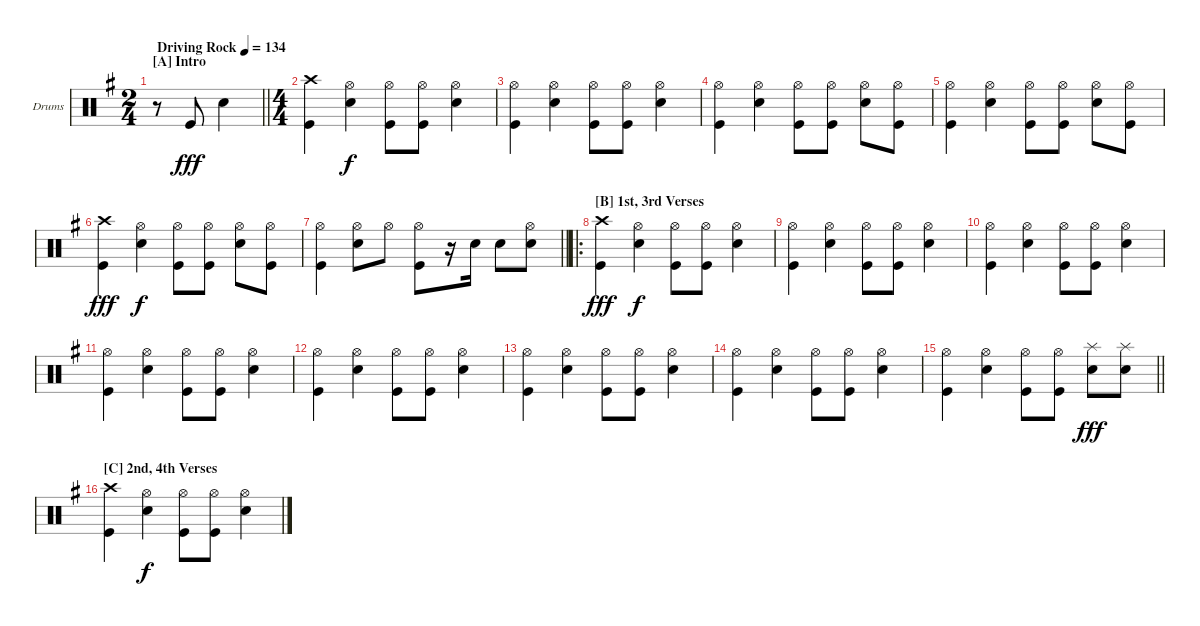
\defaultSystemsLayout 4
\bracketExtendMode groupsimilarinstruments
\firstSystemTrackNameOrientation horizontal
\otherSystemsTrackNameOrientation horizontal
\track ("Bobby Blotzer" "Drums") {instrument percussion}
\staff {score}
\articulation defaults
\ts (2 4)
\section ("A" "Intro")
\tempo (134 "Driving Rock")
\clef neutral
\barLineRight lightlight
\ks g
r.8{dy fff} "Kick (hit)".8 "Snare (hit) 2".4 |
\ts (4 4)
("Kick (hit)" "Crash high (hit)").4 ("Hi-Hat (open)" "Snare (hit) 2").4{dy f} ("Kick (hit)" "Hi-Hat (open)").8 ("Kick (hit)" "Hi-Hat (open)").8 ("Snare (hit) 2" "Hi-Hat (open)").4 |
("Kick (hit)" "Hi-Hat (open)").4 ("Hi-Hat (open)" "Snare (hit) 2").4 ("Kick (hit)" "Hi-Hat (open)").8 ("Kick (hit)" "Hi-Hat (open)").8 ("Snare (hit) 2" "Hi-Hat (open)").4 |
("Kick (hit)" "Hi-Hat (open)").4 ("Hi-Hat (open)" "Snare (hit) 2").4 ("Kick (hit)" "Hi-Hat (open)").8 ("Kick (hit)" "Hi-Hat (open)").8 ("Snare (hit) 2" "Hi-Hat (open)").8 ("Kick (hit)" "Hi-Hat (open)").8 |
("Kick (hit)" "Hi-Hat (open)").4 ("Hi-Hat (open)" "Snare (hit) 2").4 ("Kick (hit)" "Hi-Hat (open)").8 ("Kick (hit)" "Hi-Hat (open)").8 ("Snare (hit) 2" "Hi-Hat (open)").8 ("Kick (hit)" "Hi-Hat (open)").8 |
("Kick (hit)" "Crash high (hit)").4{dy fff} ("Hi-Hat (open)" "Snare (hit) 2").4{dy f} ("Kick (hit)" "Hi-Hat (open)").8 ("Kick (hit)" "Hi-Hat (open)").8 ("Snare (hit) 2" "Hi-Hat (open)").8 ("Kick (hit)" "Hi-Hat (open)").8 |
\barLineRight lightlight
("Kick (hit)" "Hi-Hat (open)").4 ("Snare (hit) 2" "Hi-Hat (open)").8 "Hi-Hat (open)".8 ("Hi-Hat (open)" "Kick (hit)").8 r.16 "Snare (hit) 2".16 "Snare (hit) 2".8 ("Snare (hit) 2" "Hi-Hat (open)").8 |
\ro
\section ("B" "1st, 3rd Verses")
("Kick (hit)" "Crash high (hit)").4{dy fff} ("Hi-Hat (open)" "Snare (hit) 2").4{dy f} ("Hi-Hat (open)" "Kick (hit)").8 ("Hi-Hat (open)" "Kick (hit)").8 ("Snare (hit) 2" "Hi-Hat (open)").4 |
("Kick (hit)" "Hi-Hat (open)").4 ("Hi-Hat (open)" "Snare (hit) 2").4 ("Hi-Hat (open)" "Kick (hit)").8 ("Hi-Hat (open)" "Kick (hit)").8 ("Snare (hit) 2" "Hi-Hat (open)").4 |
("Kick (hit)" "Hi-Hat (open)").4 ("Hi-Hat (open)" "Snare (hit) 2").4 ("Hi-Hat (open)" "Kick (hit)").8 ("Hi-Hat (open)" "Kick (hit)").8 ("Snare (hit) 2" "Hi-Hat (open)").4 |
("Kick (hit)" "Hi-Hat (open)").4 ("Hi-Hat (open)" "Snare (hit) 2").4 ("Hi-Hat (open)" "Kick (hit)").8 ("Hi-Hat (open)" "Kick (hit)").8 ("Snare (hit) 2" "Hi-Hat (open)").4 |
("Kick (hit)" "Hi-Hat (open)").4 ("Hi-Hat (open)" "Snare (hit) 2").4 ("Hi-Hat (open)" "Kick (hit)").8 ("Hi-Hat (open)" "Kick (hit)").8 ("Snare (hit) 2" "Hi-Hat (open)").4 |
("Kick (hit)" "Hi-Hat (open)").4 ("Hi-Hat (open)" "Snare (hit) 2").4 ("Hi-Hat (open)" "Kick (hit)").8 ("Hi-Hat (open)" "Kick (hit)").8 ("Snare (hit) 2" "Hi-Hat (open)").4 |
("Kick (hit)" "Hi-Hat (open)").4 ("Hi-Hat (open)" "Snare (hit) 2").4 ("Hi-Hat (open)" "Kick (hit)").8 ("Hi-Hat (open)" "Kick (hit)").8 ("Snare (hit) 2" "Hi-Hat (open)").4 |
\barLineRight lightlight
("Kick (hit)" "Hi-Hat (open)").4 ("Hi-Hat (open)" "Snare (hit) 2").4 ("Hi-Hat (open)" "Kick (hit)").8 ("Hi-Hat (open)" "Kick (hit)").8 ("Snare (hit) 2" "Splash (hit)").8{dy fff} ("Snare (hit) 2" "Splash (hit)").8 |
\section ("C" "2nd, 4th Verses")
("Kick (hit)" "Crash high (hit)").4 ("Hi-Hat (open)" "Snare (hit) 2").4{dy f} ("Hi-Hat (open)" "Kick (hit)").8 ("Hi-Hat (open)" "Kick (hit)").8 ("Snare (hit) 2" "Hi-Hat (open)").4
